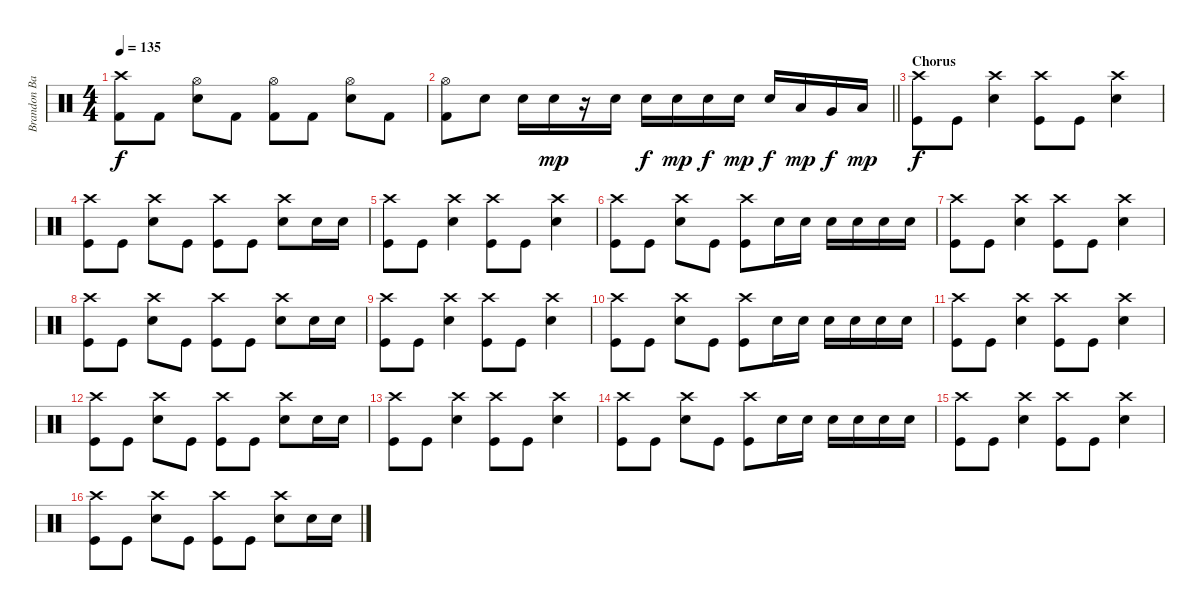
\track ("Brandon Barnes - Drums" "Brandon Ba") {instrument percussion}
\staff {score}
\articulation defaults
\ts (4 4)
\tempo 135
\clef neutral
\ks c
("Crash high (hit)" "Kick (hit) 2").8{dy f} "Kick (hit) 2".8 ("Hi-Hat (open)" "Snare (hit) 2").8 "Kick (hit) 2".8 ("Kick (hit) 2" "Hi-Hat (open)").8 "Kick (hit) 2".8 ("Hi-Hat (open)" "Snare (hit) 2").8 "Kick (hit) 2".8 |
\barLineRight lightlight
("Kick (hit) 2" "Hi-Hat (open)").8 "Snare (hit) 2".8 "Snare (hit) 2".16 "Snare (hit) 2".16{dy mp} r.16 "Snare (hit) 2".16 "Snare (hit) 2".16{dy f} "Snare (hit) 2".16{dy mp} "Snare (hit) 2".16{dy f} "Snare (hit) 2".16{dy mp} "Snare (hit) 2".16{dy f} "Low Tom (hit)".16{dy mp} "Very Low Tom (hit)".16{dy f} "Low Floor Tom (hit)".16{dy mp} |
\section ("" "Chorus")
("Crash high (hit)" "Kick (hit)").8{dy f} "Kick (hit)".8 ("Snare (hit) 2" "Crash high (hit)").4 ("Crash high (hit)" "Kick (hit)").8 "Kick (hit)".8 ("Snare (hit) 2" "Crash high (hit)").4 |
("Crash high (hit)" "Kick (hit)").8 "Kick (hit)".8 ("Snare (hit) 2" "Crash high (hit)").8 "Kick (hit)".8 ("Crash high (hit)" "Kick (hit)").8 "Kick (hit)".8 ("Snare (hit) 2" "Crash high (hit)").8 "Snare (hit) 2".16 "Snare (hit) 2".16 |
("Crash high (hit)" "Kick (hit)").8 "Kick (hit)".8 ("Snare (hit) 2" "Crash high (hit)").4 ("Crash high (hit)" "Kick (hit)").8 "Kick (hit)".8 ("Snare (hit) 2" "Crash high (hit)").4 |
("Crash high (hit)" "Kick (hit)").8 "Kick (hit)".8 ("Snare (hit) 2" "Crash high (hit)").8 "Kick (hit)".8 ("Crash high (hit)" "Kick (hit)").8 "Snare (hit) 2".16 "Snare (hit) 2".16 "Snare (hit) 2".16 "Snare (hit) 2".16 "Snare (hit) 2".16 "Snare (hit) 2".16 |
("Crash high (hit)" "Kick (hit)").8 "Kick (hit)".8 ("Snare (hit) 2" "Crash high (hit)").4 ("Crash high (hit)" "Kick (hit)").8 "Kick (hit)".8 ("Snare (hit) 2" "Crash high (hit)").4 |
("Crash high (hit)" "Kick (hit)").8 "Kick (hit)".8 ("Snare (hit) 2" "Crash high (hit)").8 "Kick (hit)".8 ("Crash high (hit)" "Kick (hit)").8 "Kick (hit)".8 ("Snare (hit) 2" "Crash high (hit)").8 "Snare (hit) 2".16 "Snare (hit) 2".16 |
("Crash high (hit)" "Kick (hit)").8 "Kick (hit)".8 ("Snare (hit) 2" "Crash high (hit)").4 ("Crash high (hit)" "Kick (hit)").8 "Kick (hit)".8 ("Snare (hit) 2" "Crash high (hit)").4 |
("Crash high (hit)" "Kick (hit)").8 "Kick (hit)".8 ("Snare (hit) 2" "Crash high (hit)").8 "Kick (hit)".8 ("Crash high (hit)" "Kick (hit)").8 "Snare (hit) 2".16 "Snare (hit) 2".16 "Snare (hit) 2".16 "Snare (hit) 2".16 "Snare (hit) 2".16 "Snare (hit) 2".16 |
("Crash high (hit)" "Kick (hit)").8 "Kick (hit)".8 ("Snare (hit) 2" "Crash high (hit)").4 ("Crash high (hit)" "Kick (hit)").8 "Kick (hit)".8 ("Snare (hit) 2" "Crash high (hit)").4 |
("Crash high (hit)" "Kick (hit)").8 "Kick (hit)".8 ("Snare (hit) 2" "Crash high (hit)").8 "Kick (hit)".8 ("Crash high (hit)" "Kick (hit)").8 "Kick (hit)".8 ("Snare (hit) 2" "Crash high (hit)").8 "Snare (hit) 2".16 "Snare (hit) 2".16 |
("Crash high (hit)" "Kick (hit)").8 "Kick (hit)".8 ("Snare (hit) 2" "Crash high (hit)").4 ("Crash high (hit)" "Kick (hit)").8 "Kick (hit)".8 ("Snare (hit) 2" "Crash high (hit)").4 |
("Crash high (hit)" "Kick (hit)").8 "Kick (hit)".8 ("Snare (hit) 2" "Crash high (hit)").8 "Kick (hit)".8 ("Crash high (hit)" "Kick (hit)").8 "Snare (hit) 2".16 "Snare (hit) 2".16 "Snare (hit) 2".16 "Snare (hit) 2".16 "Snare (hit) 2".16 "Snare (hit) 2".16 |
("Crash high (hit)" "Kick (hit)").8 "Kick (hit)".8 ("Snare (hit) 2" "Crash high (hit)").4 ("Crash high (hit)" "Kick (hit)").8 "Kick (hit)".8 ("Snare (hit) 2" "Crash high (hit)").4 |
("Crash high (hit)" "Kick (hit)").8 "Kick (hit)".8 ("Snare (hit) 2" "Crash high (hit)").8 "Kick (hit)".8 ("Crash high (hit)" "Kick (hit)").8 "Kick (hit)".8 ("Snare (hit) 2" "Crash high (hit)").8 "Snare (hit) 2".16 "Snare (hit) 2".16
